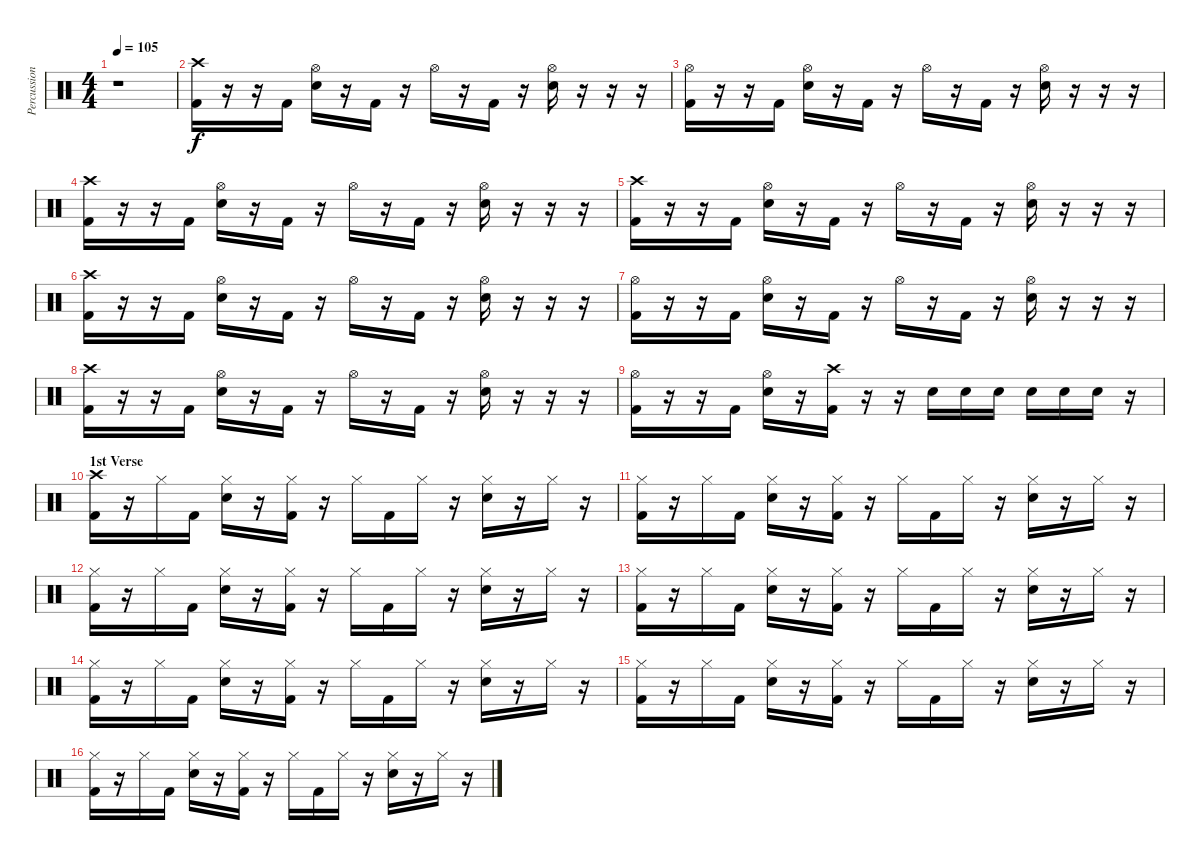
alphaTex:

\track ("Percussion" "Percussion") {instrument percussion}
\staff {score}
\articulation defaults
\ts (4 4)
\tempo 105
\clef neutral
\ks c
r.1{dy f} |
("Crash high (hit)" "Kick (hit) 2").16 r.16 r.16 "Kick (hit) 2".16 ("Hi-Hat (open)" "Snare (hit) 2").16 r.16 "Kick (hit) 2".16 r.16 "Hi-Hat (open)".16 r.16 "Kick (hit) 2".16 r.16 ("Hi-Hat (open)" "Snare (hit) 2").16 r.16 r.16 r.16 |
("Hi-Hat (open)" "Kick (hit) 2").16 r.16 r.16 "Kick (hit) 2".16 ("Hi-Hat (open)" "Snare (hit) 2").16 r.16 "Kick (hit) 2".16 r.16 "Hi-Hat (open)".16 r.16 "Kick (hit) 2".16 r.16 ("Hi-Hat (open)" "Snare (hit) 2").16 r.16 r.16 r.16 |
("Crash high (hit)" "Kick (hit) 2").16 r.16 r.16 "Kick (hit) 2".16 ("Hi-Hat (open)" "Snare (hit) 2").16 r.16 "Kick (hit) 2".16 r.16 "Hi-Hat (open)".16 r.16 "Kick (hit) 2".16 r.16 ("Hi-Hat (open)" "Snare (hit) 2").16 r.16 r.16 r.16 |
("Crash high (hit)" "Kick (hit) 2").16 r.16 r.16 "Kick (hit) 2".16 ("Hi-Hat (open)" "Snare (hit) 2").16 r.16 "Kick (hit) 2".16 r.16 "Hi-Hat (open)".16 r.16 "Kick (hit) 2".16 r.16 ("Hi-Hat (open)" "Snare (hit) 2").16 r.16 r.16 r.16 |
("Crash high (hit)" "Kick (hit) 2").16 r.16 r.16 "Kick (hit) 2".16 ("Hi-Hat (open)" "Snare (hit) 2").16 r.16 "Kick (hit) 2".16 r.16 "Hi-Hat (open)".16 r.16 "Kick (hit) 2".16 r.16 ("Hi-Hat (open)" "Snare (hit) 2").16 r.16 r.16 r.16 |
("Hi-Hat (open)" "Kick (hit) 2").16 r.16 r.16 "Kick (hit) 2".16 ("Hi-Hat (open)" "Snare (hit) 2").16 r.16 "Kick (hit) 2".16 r.16 "Hi-Hat (open)".16 r.16 "Kick (hit) 2".16 r.16 ("Hi-Hat (open)" "Snare (hit) 2").16 r.16 r.16 r.16 |
("Crash high (hit)" "Kick (hit) 2").16 r.16 r.16 "Kick (hit) 2".16 ("Hi-Hat (open)" "Snare (hit) 2").16 r.16 "Kick (hit) 2".16 r.16 "Hi-Hat (open)".16 r.16 "Kick (hit) 2".16 r.16 ("Hi-Hat (open)" "Snare (hit) 2").16 r.16 r.16 r.16 |
("Hi-Hat (open)" "Kick (hit) 2").16 r.16 r.16 "Kick (hit) 2".16 ("Hi-Hat (open)" "Snare (hit) 2").16 r.16 ("Crash high (hit)" "Kick (hit) 2").16 r.16 r.16 "Snare (hit) 2".16 "Snare (hit) 2".16 "Snare (hit) 2".16 "Snare (hit) 2".16 "Snare (hit) 2".16 "Snare (hit) 2".16 r.16 |
\section ("" "1st Verse")
("Crash high (hit)" "Kick (hit) 2").16 r.16 "Hi-Hat (closed)".16 "Kick (hit) 2".16 ("Hi-Hat (closed)" "Snare (hit) 2").16 r.16 ("Hi-Hat (closed)" "Kick (hit) 2").16 r.16 "Hi-Hat (closed)".16 "Kick (hit) 2".16 "Hi-Hat (closed)".16 r.16 ("Hi-Hat (closed)" "Snare (hit) 2").16 r.16 "Hi-Hat (closed)".16 r.16 |
("Hi-Hat (closed)" "Kick (hit) 2").16 r.16 "Hi-Hat (closed)".16 "Kick (hit) 2".16 ("Hi-Hat (closed)" "Snare (hit) 2").16 r.16 ("Hi-Hat (closed)" "Kick (hit) 2").16 r.16 "Hi-Hat (closed)".16 "Kick (hit) 2".16 "Hi-Hat (closed)".16 r.16 ("Hi-Hat (closed)" "Snare (hit) 2").16 r.16 "Hi-Hat (closed)".16 r.16 |
("Hi-Hat (closed)" "Kick (hit) 2").16 r.16 "Hi-Hat (closed)".16 "Kick (hit) 2".16 ("Hi-Hat (closed)" "Snare (hit) 2").16 r.16 ("Hi-Hat (closed)" "Kick (hit) 2").16 r.16 "Hi-Hat (closed)".16 "Kick (hit) 2".16 "Hi-Hat (closed)".16 r.16 ("Hi-Hat (closed)" "Snare (hit) 2").16 r.16 "Hi-Hat (closed)".16 r.16 |
("Hi-Hat (closed)" "Kick (hit) 2").16 r.16 "Hi-Hat (closed)".16 "Kick (hit) 2".16 ("Hi-Hat (closed)" "Snare (hit) 2").16 r.16 ("Hi-Hat (closed)" "Kick (hit) 2").16 r.16 "Hi-Hat (closed)".16 "Kick (hit) 2".16 "Hi-Hat (closed)".16 r.16 ("Hi-Hat (closed)" "Snare (hit) 2").16 r.16 "Hi-Hat (closed)".16 r.16 |
("Hi-Hat (closed)" "Kick (hit) 2").16 r.16 "Hi-Hat (closed)".16 "Kick (hit) 2".16 ("Hi-Hat (closed)" "Snare (hit) 2").16 r.16 ("Hi-Hat (closed)" "Kick (hit) 2").16 r.16 "Hi-Hat (closed)".16 "Kick (hit) 2".16 "Hi-Hat (closed)".16 r.16 ("Hi-Hat (closed)" "Snare (hit) 2").16 r.16 "Hi-Hat (closed)".16 r.16 |
("Hi-Hat (closed)" "Kick (hit) 2").16 r.16 "Hi-Hat (closed)".16 "Kick (hit) 2".16 ("Hi-Hat (closed)" "Snare (hit) 2").16 r.16 ("Hi-Hat (closed)" "Kick (hit) 2").16 r.16 "Hi-Hat (closed)".16 "Kick (hit) 2".16 "Hi-Hat (closed)".16 r.16 ("Hi-Hat (closed)" "Snare (hit) 2").16 r.16 "Hi-Hat (closed)".16 r.16 |
("Hi-Hat (closed)" "Kick (hit) 2").16 r.16 "Hi-Hat (closed)".16 "Kick (hit) 2".16 ("Hi-Hat (closed)" "Snare (hit) 2").16 r.16 ("Hi-Hat (closed)" "Kick (hit) 2").16 r.16 "Hi-Hat (closed)".16 "Kick (hit) 2".16 "Hi-Hat (closed)".16 r.16 ("Hi-Hat (closed)" "Snare (hit) 2").16 r.16 "Hi-Hat (closed)".16 r.16
